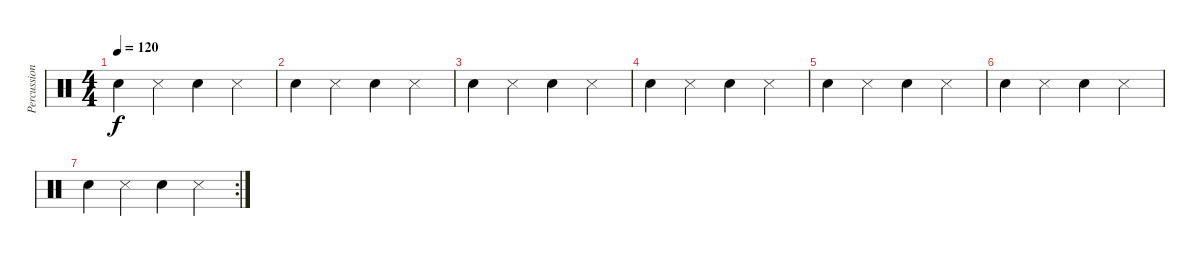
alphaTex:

\track ("Percussion" "Percussion") {instrument percussion}
\staff {score}
\articulation defaults
\ts (4 4)
\tempo 120
\clef neutral
\ks c "Snare (hit) 2".4{dy f} "Snare (side stick) 3".4 "Snare (hit) 2".4 "Snare (side stick) 3".4
|
"Snare (hit) 2".4 "Snare (side stick) 3".4 "Snare (hit) 2".4 "Snare (side stick) 3".4 |
"Snare (hit) 2".4 "Snare (side stick) 3".4 "Snare (hit) 2".4 "Snare (side stick) 3".4 |
"Snare (hit) 2".4 "Snare (side stick) 3".4 "Snare (hit) 2".4 "Snare (side stick) 3".4 |
"Snare (hit) 2".4 "Snare (side stick) 3".4 "Snare (hit) 2".4 "Snare (side stick) 3".4 |
"Snare (hit) 2".4 "Snare (side stick) 3".4 "Snare (hit) 2".4 "Snare (side stick) 3".4 |
\rc 2 "Snare (hit) 2".4 "Snare (side stick) 3".4 "Snare (hit) 2".4 "Snare (side stick) 3".4
